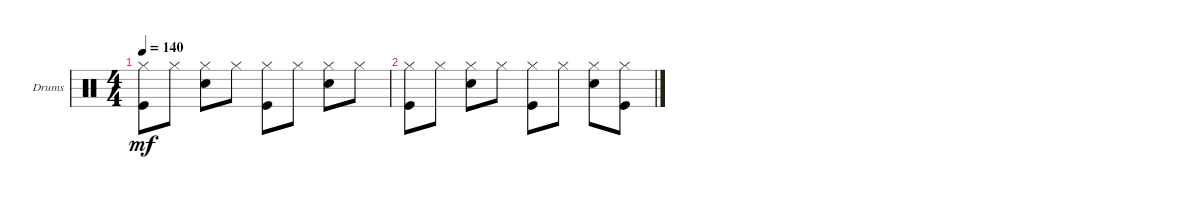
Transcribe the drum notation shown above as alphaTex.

\defaultSystemsLayout 4
\bracketExtendMode groupsimilarinstruments
\firstSystemTrackNameOrientation horizontal
\otherSystemsTrackNameOrientation horizontal
\track ("Drumkit" "Drums") {instrument percussion}
\staff {score}
\articulation defaults
\ts (4 4)
\tempo 140
\clef neutral
\ks c
("Hi-Hat (closed)" "Kick (hit)").8{dy mf} "Hi-Hat (closed)".8 ("Hi-Hat (closed)" "Snare (hit) 2").8 "Hi-Hat (closed)".8 ("Hi-Hat (closed)" "Kick (hit)").8 "Hi-Hat (closed)".8 ("Hi-Hat (closed)" "Snare (hit) 2").8 "Hi-Hat (closed)".8 |
("Hi-Hat (closed)" "Kick (hit)").8 "Hi-Hat (closed)".8 ("Hi-Hat (closed)" "Snare (hit) 2").8 "Hi-Hat (closed)".8 ("Hi-Hat (closed)" "Kick (hit)").8 "Hi-Hat (closed)".8 ("Hi-Hat (closed)" "Snare (hit) 2").8 ("Hi-Hat (closed)" "Kick (hit)").8
